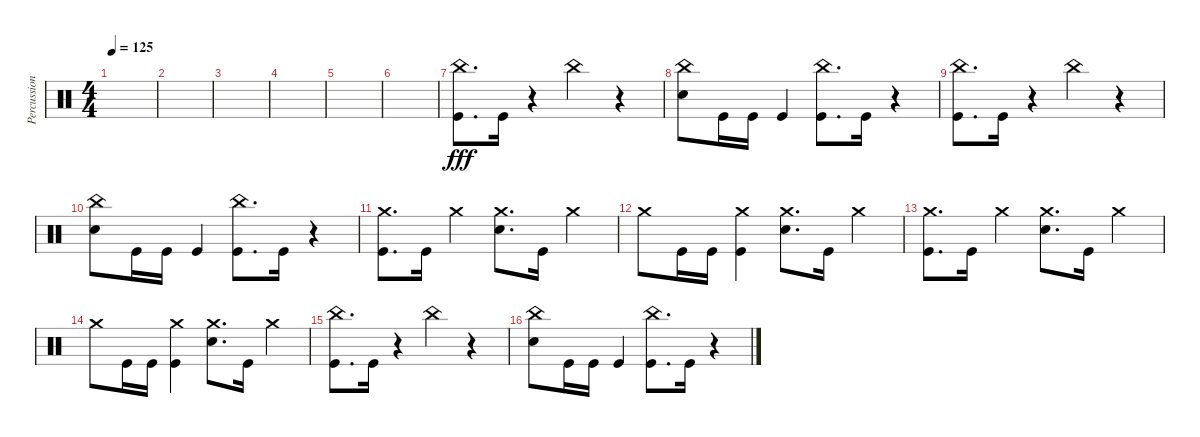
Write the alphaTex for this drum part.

\track ("Percussion" "Percussion") {instrument percussion}
\staff {score}
\articulation defaults
\ts (4 4)
\tempo 125
\clef neutral
\ks c
|
|
|
|
|
|
("China (hit)" "Kick (hit)").8{d dy fff} "Kick (hit)".16 r.4 "China (hit)".4 r.4 |
("China (hit)" "Snare (hit) 2").8 "Kick (hit)".16 "Kick (hit)".16 "Kick (hit)".4 ("China (hit)" "Kick (hit)").8{d} "Kick (hit)".16 r.4 |
("China (hit)" "Kick (hit)").8{d} "Kick (hit)".16 r.4 "China (hit)".4 r.4 |
("China (hit)" "Snare (hit) 2").8 "Kick (hit)".16 "Kick (hit)".16 "Kick (hit)".4 ("China (hit)" "Kick (hit)").8{d} "Kick (hit)".16 r.4 |
("Crash medium (hit)" "Kick (hit)").8{d} "Kick (hit)".16 "Crash medium (hit)".4 ("Crash medium (hit)" "Snare (hit) 2").8{d} "Kick (hit)".16 "Crash medium (hit)".4 |
"Crash medium (hit)".8 "Kick (hit)".16 "Kick (hit)".16 ("Crash medium (hit)" "Kick (hit)").4 ("Crash medium (hit)" "Snare (hit) 2").8{d} "Kick (hit)".16 "Crash medium (hit)".4 |
("Crash medium (hit)" "Kick (hit)").8{d} "Kick (hit)".16 "Crash medium (hit)".4 ("Crash medium (hit)" "Snare (hit) 2").8{d} "Kick (hit)".16 "Crash medium (hit)".4 |
"Crash medium (hit)".8 "Kick (hit)".16 "Kick (hit)".16 ("Crash medium (hit)" "Kick (hit)").4 ("Crash medium (hit)" "Snare (hit) 2").8{d} "Kick (hit)".16 "Crash medium (hit)".4 |
("China (hit)" "Kick (hit)").8{d} "Kick (hit)".16 r.4 "China (hit)".4 r.4 |
("China (hit)" "Snare (hit) 2").8 "Kick (hit)".16 "Kick (hit)".16 "Kick (hit)".4 ("China (hit)" "Kick (hit)").8{d} "Kick (hit)".16 r.4
